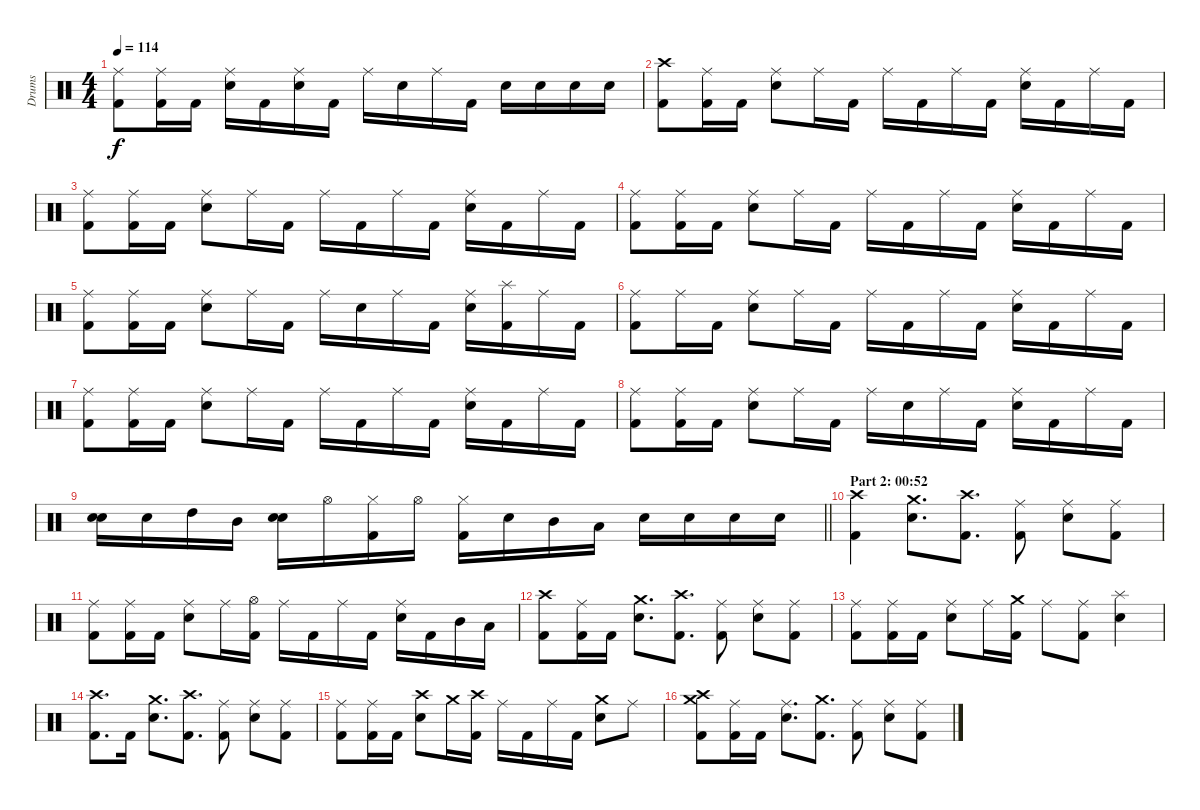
\track ("Drums" "Drums") {instrument percussion}
\staff {score}
\articulation defaults
\ts (4 4)
\tempo 114
\clef neutral
\ks c
("Ride (middle)" "Kick (hit) 2").8{dy f} ("Ride (middle)" "Kick (hit) 2").16 "Kick (hit) 2".16 ("Ride (middle)" "Electric Snare (hit)").16 "Kick (hit) 2".16 ("Ride (middle)" "Electric Snare (hit)").16 "Kick (hit) 2".16 "Ride (middle)".16 "Electric Snare (hit)".16 "Ride (middle)".16 "Kick (hit) 2".16 "Electric Snare (hit)".16 "Electric Snare (hit)".16 "Electric Snare (hit)".16 "Electric Snare (hit)".16 |
("Crash high (hit)" "Kick (hit) 2").8 ("Ride (middle)" "Kick (hit) 2").16 "Kick (hit) 2".16 ("Ride (middle)" "Electric Snare (hit)").8 "Ride (middle)".16 "Kick (hit) 2".16 "Ride (middle)".16 "Kick (hit) 2".16 "Ride (middle)".16 "Kick (hit) 2".16 ("Ride (middle)" "Electric Snare (hit)").16 "Kick (hit) 2".16 "Ride (middle)".16 "Kick (hit) 2".16 |
("Ride (middle)" "Kick (hit) 2").8 ("Ride (middle)" "Kick (hit) 2").16 "Kick (hit) 2".16 ("Ride (middle)" "Electric Snare (hit)").8 "Ride (middle)".16 "Kick (hit) 2".16 "Ride (middle)".16 "Kick (hit) 2".16 "Ride (middle)".16 "Kick (hit) 2".16 ("Ride (middle)" "Electric Snare (hit)").16 "Kick (hit) 2".16 "Ride (middle)".16 "Kick (hit) 2".16 |
("Ride (middle)" "Kick (hit) 2").8 ("Ride (middle)" "Kick (hit) 2").16 "Kick (hit) 2".16 ("Ride (middle)" "Electric Snare (hit)").8 "Ride (middle)".16 "Kick (hit) 2".16 "Ride (middle)".16 "Kick (hit) 2".16 "Ride (middle)".16 "Kick (hit) 2".16 ("Ride (middle)" "Electric Snare (hit)").16 "Kick (hit) 2".16 "Ride (middle)".16 "Kick (hit) 2".16 |
("Ride (middle)" "Kick (hit) 2").8 ("Ride (middle)" "Kick (hit) 2").16 "Kick (hit) 2".16 ("Ride (middle)" "Electric Snare (hit)").8 "Ride (middle)".16 "Kick (hit) 2".16 "Ride (middle)".16 "Electric Snare (hit)".16 "Ride (middle)".16 "Kick (hit) 2".16 ("Ride (middle)" "Electric Snare (hit)").16 ("Splash (hit)" "Kick (hit) 2").16 "Ride (middle)".16 "Kick (hit) 2".16 |
("Ride (middle)" "Kick (hit) 2").8 "Ride (middle)".16 "Kick (hit) 2".16 ("Ride (middle)" "Electric Snare (hit)").8 "Ride (middle)".16 "Kick (hit) 2".16 "Ride (middle)".16 "Kick (hit) 2".16 "Ride (middle)".16 "Kick (hit) 2".16 ("Ride (middle)" "Electric Snare (hit)").16 "Kick (hit) 2".16 "Ride (middle)".16 "Kick (hit) 2".16 |
("Ride (middle)" "Kick (hit) 2").8 ("Ride (middle)" "Kick (hit) 2").16 "Kick (hit) 2".16 ("Ride (middle)" "Electric Snare (hit)").8 "Ride (middle)".16 "Kick (hit) 2".16 "Ride (middle)".16 "Kick (hit) 2".16 "Ride (middle)".16 "Kick (hit) 2".16 ("Ride (middle)" "Electric Snare (hit)").16 "Kick (hit) 2".16 "Ride (middle)".16 "Kick (hit) 2".16 |
("Ride (middle)" "Kick (hit) 2").8 ("Ride (middle)" "Kick (hit) 2").16 "Kick (hit) 2".16 ("Ride (middle)" "Electric Snare (hit)").8 "Ride (middle)".16 "Kick (hit) 2".16 "Ride (middle)".16 "Electric Snare (hit)".16 "Ride (middle)".16 "Kick (hit) 2".16 ("Ride (middle)" "Electric Snare (hit)").16 "Kick (hit) 2".16 "Ride (middle)".16 "Kick (hit) 2".16 |
\barLineRight lightlight
("Electric Snare (hit)" "Electric Snare (hit)").16{bd 60} "Electric Snare (hit)".16 "High Tom (hit)".16 "Mid Tom (hit)".16 ("Electric Snare (hit)" "Electric Snare (hit)").16{bd 60} "Hi-Hat (open)".16 ("Hi-Hat (closed)" "Kick (hit) 2").16 "Hi-Hat (open)".16 ("Hi-Hat (closed)" "Kick (hit) 2").16 "Electric Snare (hit)".16 "Mid Tom (hit)".16 "Low Tom (hit)".16 "Electric Snare (hit)".16 "Electric Snare (hit)".16 "Electric Snare (hit)".16 "Electric Snare (hit)".16 |
\section ("" "Part 2: 00:52")
("Crash high (hit)" "Kick (hit) 2").4 ("Crash medium (hit)" "Electric Snare (hit)").8{d} ("Crash high (hit)" "Kick (hit) 2").8{d} ("Ride (middle)" "Kick (hit) 2").8 ("Ride (middle)" "Electric Snare (hit)").8 ("Ride (middle)" "Kick (hit) 2").8 |
("Ride (middle)" "Kick (hit) 2").8 ("Ride (middle)" "Kick (hit) 2").16 "Kick (hit) 2".16 ("Ride (middle)" "Electric Snare (hit)").8 "Ride (middle)".16 ("Hi-Hat (open)" "Kick (hit) 2").16 "Ride (middle)".16 "Kick (hit) 2".16 "Ride (middle)".16 "Kick (hit) 2".16 ("Ride (middle)" "Electric Snare (hit)").16 "Kick (hit) 2".16 "Mid Tom (hit)".16 "Low Tom (hit)".16 |
("Crash high (hit)" "Kick (hit) 2").8 ("Ride (middle)" "Kick (hit) 2").16 "Kick (hit) 2".16 ("Crash medium (hit)" "Electric Snare (hit)").8{d} ("Crash high (hit)" "Kick (hit) 2").8{d} ("Ride (middle)" "Kick (hit) 2").8 ("Ride (middle)" "Electric Snare (hit)").8 ("Ride (middle)" "Kick (hit) 2").8 |
("Ride (middle)" "Kick (hit) 2").8 ("Ride (middle)" "Kick (hit) 2").16 "Kick (hit) 2".16 ("Ride (middle)" "Electric Snare (hit)").8 "Ride (middle)".16 ("Crash medium (hit)" "Kick (hit) 2").16 "Ride (middle)".8 ("Ride (middle)" "Kick (hit) 2").8 ("Splash (hit)" "Electric Snare (hit)").4 |
("Crash high (hit)" "Kick (hit) 2").8{d} "Kick (hit) 2".16 ("Crash medium (hit)" "Electric Snare (hit)").8{d} ("Crash high (hit)" "Kick (hit) 2").8{d} ("Ride (middle)" "Kick (hit) 2").8 ("Ride (middle)" "Electric Snare (hit)").8 ("Ride (middle)" "Kick (hit) 2").8 |
("Ride (middle)" "Kick (hit) 2").8 ("Ride (middle)" "Kick (hit) 2").16 "Kick (hit) 2".16 ("Crash high (hit)" "Electric Snare (hit)").8 "Crash medium (hit)".16 ("Crash high (hit)" "Kick (hit) 2").16 "Ride (middle)".16 "Kick (hit) 2".16 "Ride (middle)".16 "Kick (hit) 2".16 ("Crash medium (hit)" "Electric Snare (hit)").8 "Ride (middle)".8 |
("Crash high (hit)" "Crash medium (hit)" "Kick (hit) 2").8 ("Ride (middle)" "Kick (hit) 2").16 "Kick (hit) 2".16 ("Ride (middle)" "Electric Snare (hit)").8{d} ("Crash medium (hit)" "Kick (hit) 2").8{d} ("Ride (middle)" "Kick (hit) 2").8 ("Ride (middle)" "Electric Snare (hit)").8 ("Ride (middle)" "Kick (hit) 2").8
